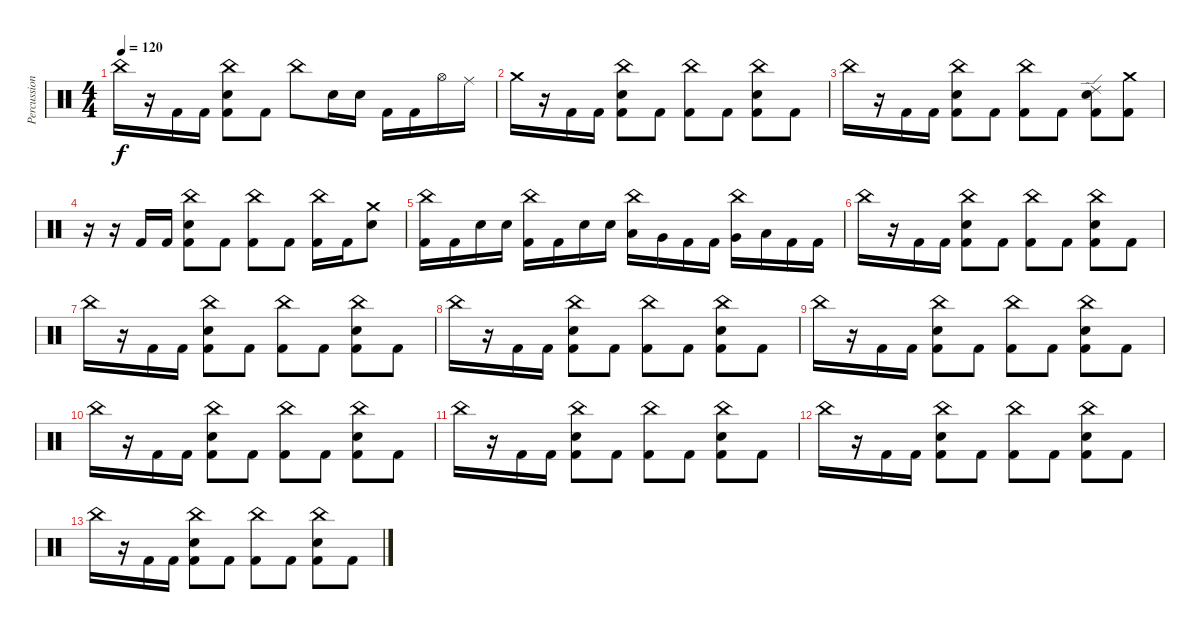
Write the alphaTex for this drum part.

\track ("Percussion" "Percussion") {instrument percussion}
\staff {score}
\articulation defaults
\ts (4 4)
\tempo 120
\clef neutral
\ks c "China (hit)".16{dy f}
r.16 "Kick (hit) 2".16 "Kick (hit) 2".16 ("China (hit)" "Electric Snare (hit)" "Kick (hit) 2").8 "Kick (hit) 2".8 "China (hit)".8 "Electric Snare (hit)".16 "Electric Snare (hit)".16 "Kick (hit) 2".16 "Kick (hit) 2".16 "Hi-Hat (open)".16 "Ride (middle)".16 |
"Crash medium (hit)".16 r.16 "Kick (hit) 2".16 "Kick (hit) 2".16 ("China (hit)" "Electric Snare (hit)" "Kick (hit) 2").8 "Kick (hit) 2".8 ("China (hit)" "Kick (hit) 2").8 "Kick (hit) 2".8 ("China (hit)" "Electric Snare (hit)" "Kick (hit) 2").8 "Kick (hit) 2".8 |
"China (hit)".16 r.16 "Kick (hit) 2".16 "Kick (hit) 2".16 ("China (hit)" "Electric Snare (hit)" "Kick (hit) 2").8 "Kick (hit) 2".8 ("China (hit)" "Kick (hit) 2").8 "Kick (hit) 2".8 ("Ride (edge) 2" "Electric Snare (hit)" "Kick (hit) 2").8 ("Crash medium (hit)" "Kick (hit) 2").8 |
r.16 r.16 "Kick (hit) 2".16 "Kick (hit) 2".16 ("China (hit)" "Electric Snare (hit)" "Kick (hit) 2").8 "Kick (hit) 2".8 ("China (hit)" "Kick (hit) 2").8 "Kick (hit) 2".8 ("China (hit)" "Kick (hit) 2").16 "Kick (hit) 2".16 ("Crash medium (hit)" "Electric Snare (hit)").8 |
("China (hit)" "Kick (hit) 2").16 "Kick (hit) 2".16 "Electric Snare (hit)".16 "Electric Snare (hit)".16 ("China (hit)" "Kick (hit) 2").16 "Kick (hit) 2".16 "Electric Snare (hit)".16 "Electric Snare (hit)".16 ("China (hit)" "Low Tom (hit)").16 "Very Low Tom (hit)".16 "Kick (hit) 2".16 "Kick (hit) 2".16 ("China (hit)" "Very Low Tom (hit)").16 "Low Floor Tom (hit)".16 "Kick (hit) 2".16 "Kick (hit) 2".16 |
"China (hit)".16 r.16 "Kick (hit) 2".16 "Kick (hit) 2".16 ("China (hit)" "Electric Snare (hit)" "Kick (hit) 2").8 "Kick (hit) 2".8 ("China (hit)" "Kick (hit) 2").8 "Kick (hit) 2".8 ("China (hit)" "Electric Snare (hit)" "Kick (hit) 2").8 "Kick (hit) 2".8 |
"China (hit)".16 r.16 "Kick (hit) 2".16 "Kick (hit) 2".16 ("China (hit)" "Electric Snare (hit)" "Kick (hit) 2").8 "Kick (hit) 2".8 ("China (hit)" "Kick (hit) 2").8 "Kick (hit) 2".8 ("China (hit)" "Electric Snare (hit)" "Kick (hit) 2").8 "Kick (hit) 2".8 |
"China (hit)".16 r.16 "Kick (hit) 2".16 "Kick (hit) 2".16 ("China (hit)" "Electric Snare (hit)" "Kick (hit) 2").8 "Kick (hit) 2".8 ("China (hit)" "Kick (hit) 2").8 "Kick (hit) 2".8 ("China (hit)" "Electric Snare (hit)" "Kick (hit) 2").8 "Kick (hit) 2".8 |
"China (hit)".16 r.16 "Kick (hit) 2".16 "Kick (hit) 2".16 ("China (hit)" "Electric Snare (hit)" "Kick (hit) 2").8 "Kick (hit) 2".8 ("China (hit)" "Kick (hit) 2").8 "Kick (hit) 2".8 ("China (hit)" "Electric Snare (hit)" "Kick (hit) 2").8 "Kick (hit) 2".8 |
"China (hit)".16{volume 0} r.16 "Kick (hit) 2".16 "Kick (hit) 2".16 ("China (hit)" "Electric Snare (hit)" "Kick (hit) 2").8 "Kick (hit) 2".8 ("China (hit)" "Kick (hit) 2").8 "Kick (hit) 2".8 ("China (hit)" "Electric Snare (hit)" "Kick (hit) 2").8 "Kick (hit) 2".8 |
"China (hit)".16 r.16 "Kick (hit) 2".16 "Kick (hit) 2".16 ("China (hit)" "Electric Snare (hit)" "Kick (hit) 2").8 "Kick (hit) 2".8 ("China (hit)" "Kick (hit) 2").8 "Kick (hit) 2".8 ("China (hit)" "Electric Snare (hit)" "Kick (hit) 2").8 "Kick (hit) 2".8 |
"China (hit)".16 r.16 "Kick (hit) 2".16 "Kick (hit) 2".16 ("China (hit)" "Electric Snare (hit)" "Kick (hit) 2").8 "Kick (hit) 2".8 ("China (hit)" "Kick (hit) 2").8 "Kick (hit) 2".8 ("China (hit)" "Electric Snare (hit)" "Kick (hit) 2").8 "Kick (hit) 2".8 |
"China (hit)".16 r.16 "Kick (hit) 2".16 "Kick (hit) 2".16 ("China (hit)" "Electric Snare (hit)" "Kick (hit) 2").8 "Kick (hit) 2".8 ("China (hit)" "Kick (hit) 2").8 "Kick (hit) 2".8 ("China (hit)" "Electric Snare (hit)" "Kick (hit) 2").8 "Kick (hit) 2".8
